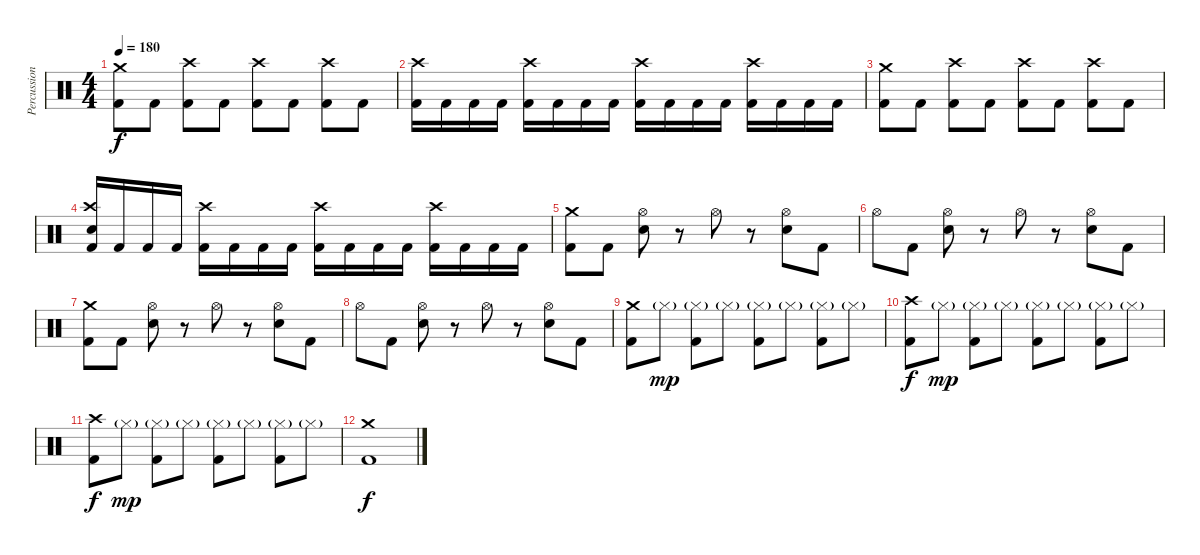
\track ("Percussion" "Percussion") {instrument percussion}
\staff {score}
\articulation defaults
\ts (4 4)
\tempo 180
\clef neutral
\ks c
("Crash medium (hit)" "Kick (hit) 2").8{dy f} "Kick (hit) 2".8 ("Crash high (hit)" "Kick (hit) 2").8 "Kick (hit) 2".8 ("Crash high (hit)" "Kick (hit) 2").8 "Kick (hit) 2".8 ("Crash high (hit)" "Kick (hit) 2").8 "Kick (hit) 2".8 |
("Crash high (hit)" "Kick (hit) 2").16 "Kick (hit) 2".16 "Kick (hit) 2".16 "Kick (hit) 2".16 ("Crash high (hit)" "Kick (hit) 2").16 "Kick (hit) 2".16 "Kick (hit) 2".16 "Kick (hit) 2".16 ("Crash high (hit)" "Kick (hit) 2").16 "Kick (hit) 2".16 "Kick (hit) 2".16 "Kick (hit) 2".16 ("Crash high (hit)" "Kick (hit) 2").16 "Kick (hit) 2".16 "Kick (hit) 2".16 "Kick (hit) 2".16 |
("Crash medium (hit)" "Kick (hit) 2").8 "Kick (hit) 2".8 ("Crash high (hit)" "Kick (hit) 2").8 "Kick (hit) 2".8 ("Crash high (hit)" "Kick (hit) 2").8 "Kick (hit) 2".8 ("Crash high (hit)" "Kick (hit) 2").8 "Kick (hit) 2".8 |
("Crash high (hit)" "Snare (hit) 2" "Kick (hit) 2").16 "Kick (hit) 2".16 "Kick (hit) 2".16 "Kick (hit) 2".16 ("Crash high (hit)" "Kick (hit) 2").16 "Kick (hit) 2".16 "Kick (hit) 2".16 "Kick (hit) 2".16 ("Crash high (hit)" "Kick (hit) 2").16 "Kick (hit) 2".16 "Kick (hit) 2".16 "Kick (hit) 2".16 ("Crash high (hit)" "Kick (hit) 2").16 "Kick (hit) 2".16 "Kick (hit) 2".16 "Kick (hit) 2".16 |
("Crash medium (hit)" "Kick (hit) 2").8 "Kick (hit) 2".8 ("Hi-Hat (open)" "Snare (hit) 2").8 r.8 "Hi-Hat (open)".8 r.8 ("Hi-Hat (open)" "Snare (hit) 2").8 "Kick (hit) 2".8 |
"Hi-Hat (open)".8 "Kick (hit) 2".8 ("Hi-Hat (open)" "Snare (hit) 2").8 r.8 "Hi-Hat (open)".8 r.8 ("Hi-Hat (open)" "Snare (hit) 2").8 "Kick (hit) 2".8 |
("Crash medium (hit)" "Kick (hit) 2").8 "Kick (hit) 2".8 ("Hi-Hat (open)" "Snare (hit) 2").8 r.8 "Hi-Hat (open)".8 r.8 ("Hi-Hat (open)" "Snare (hit) 2").8 "Kick (hit) 2".8 |
"Hi-Hat (open)".8 "Kick (hit) 2".8 ("Hi-Hat (open)" "Snare (hit) 2").8 r.8 "Hi-Hat (open)".8 r.8 ("Hi-Hat (open)" "Snare (hit) 2").8 "Kick (hit) 2".8 |
("Crash medium (hit)" "Kick (hit) 2").8 "Hi-Hat (closed)"{g}.8{dy mp} ("Hi-Hat (closed)"{g} "Kick (hit) 2").8 "Hi-Hat (closed)"{g}.8 ("Hi-Hat (closed)"{g} "Kick (hit) 2").8 "Hi-Hat (closed)"{g}.8 ("Hi-Hat (closed)"{g} "Kick (hit) 2").8 "Hi-Hat (closed)"{g}.8 |
("Crash high (hit)" "Kick (hit) 2").8{dy f} "Hi-Hat (closed)"{g}.8{dy mp} ("Hi-Hat (closed)"{g} "Kick (hit) 2").8 "Hi-Hat (closed)"{g}.8 ("Hi-Hat (closed)"{g} "Kick (hit) 2").8 "Hi-Hat (closed)"{g}.8 ("Hi-Hat (closed)"{g} "Kick (hit) 2").8 "Hi-Hat (closed)"{g}.8 |
("Crash high (hit)" "Kick (hit) 2").8{dy f} "Hi-Hat (closed)"{g}.8{dy mp} ("Hi-Hat (closed)"{g} "Kick (hit) 2").8 "Hi-Hat (closed)"{g}.8 ("Hi-Hat (closed)"{g} "Kick (hit) 2").8 "Hi-Hat (closed)"{g}.8 ("Hi-Hat (closed)"{g} "Kick (hit) 2").8 "Hi-Hat (closed)"{g}.8 |
("Crash medium (hit)" "Kick (hit) 2").1{dy f}
